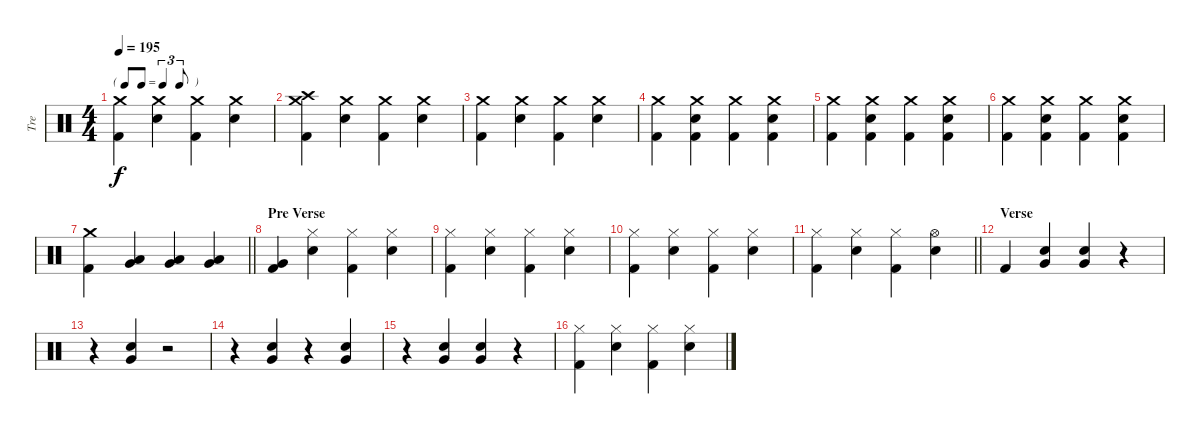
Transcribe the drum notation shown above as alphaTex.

\track ("Tre" "Tre") {instrument percussion}
\staff {score}
\articulation defaults
\ts (4 4)
\tf triplet8th
\tempo 195
\clef neutral
\ks c
("Crash medium (hit)" "Kick (hit) 2").4{dy f} ("Crash medium (hit)" "Snare (hit) 2").4 ("Crash medium (hit)" "Kick (hit) 2").4 ("Crash medium (hit)" "Snare (hit) 2").4 |
("Crash medium (hit)" "Crash high (hit)" "Kick (hit) 2").4 ("Crash medium (hit)" "Snare (hit) 2").4 ("Crash medium (hit)" "Kick (hit) 2").4 ("Crash medium (hit)" "Snare (hit) 2").4 |
("Crash medium (hit)" "Kick (hit) 2").4 ("Crash medium (hit)" "Snare (hit) 2").4 ("Crash medium (hit)" "Kick (hit) 2").4 ("Crash medium (hit)" "Snare (hit) 2").4 |
("Crash medium (hit)" "Kick (hit) 2").4 ("Crash medium (hit)" "Snare (hit) 2" "Kick (hit) 2").4 ("Crash medium (hit)" "Kick (hit) 2").4 ("Crash medium (hit)" "Snare (hit) 2" "Kick (hit) 2").4 |
("Crash medium (hit)" "Kick (hit) 2").4 ("Crash medium (hit)" "Snare (hit) 2" "Kick (hit) 2").4 ("Crash medium (hit)" "Kick (hit) 2").4 ("Crash medium (hit)" "Snare (hit) 2" "Kick (hit) 2").4 |
("Crash medium (hit)" "Kick (hit) 2").4 ("Crash medium (hit)" "Snare (hit) 2" "Kick (hit) 2").4 ("Crash medium (hit)" "Kick (hit) 2").4 ("Crash medium (hit)" "Snare (hit) 2" "Kick (hit) 2").4 |
\barLineRight lightlight
("Crash medium (hit)" "Kick (hit) 2").4 ("Very Low Tom (hit)" "Low Floor Tom (hit)").4 ("Very Low Tom (hit)" "Low Floor Tom (hit)").4 ("Very Low Tom (hit)" "Low Floor Tom (hit)").4 |
\section ("" "Pre Verse")
("Very Low Tom (hit)" "Kick (hit) 2").4 ("Hi-Hat (closed)" "Snare (hit) 2").4 ("Hi-Hat (closed)" "Kick (hit) 2").4 ("Hi-Hat (closed)" "Snare (hit) 2").4 |
("Hi-Hat (closed)" "Kick (hit) 2").4 ("Hi-Hat (closed)" "Snare (hit) 2").4 ("Hi-Hat (closed)" "Kick (hit) 2").4 ("Hi-Hat (closed)" "Snare (hit) 2").4 |
("Hi-Hat (closed)" "Kick (hit) 2").4 ("Hi-Hat (closed)" "Snare (hit) 2").4 ("Hi-Hat (closed)" "Kick (hit) 2").4 ("Hi-Hat (closed)" "Snare (hit) 2").4 |
\barLineRight lightlight
("Hi-Hat (closed)" "Kick (hit) 2").4 ("Hi-Hat (closed)" "Snare (hit) 2").4 ("Hi-Hat (closed)" "Kick (hit) 2").4 ("Hi-Hat (open)" "Snare (hit) 2").4 |
\section ("" "Verse")
"Kick (hit) 2".4 ("Snare (hit) 2" "Very Low Tom (hit)").4 ("Snare (hit) 2" "Very Low Tom (hit)").4 r.4 |
r.4 ("Snare (hit) 2" "Very Low Tom (hit)").4 r.2 |
r.4 ("Snare (hit) 2" "Very Low Tom (hit)").4 r.4 ("Snare (hit) 2" "Very Low Tom (hit)").4 |
r.4 ("Snare (hit) 2" "Very Low Tom (hit)").4 ("Snare (hit) 2" "Very Low Tom (hit)").4 r.4 |
("Hi-Hat (closed)" "Kick (hit) 2").4 ("Hi-Hat (closed)" "Snare (hit) 2").4 ("Hi-Hat (closed)" "Kick (hit) 2").4 ("Hi-Hat (closed)" "Snare (hit) 2").4
